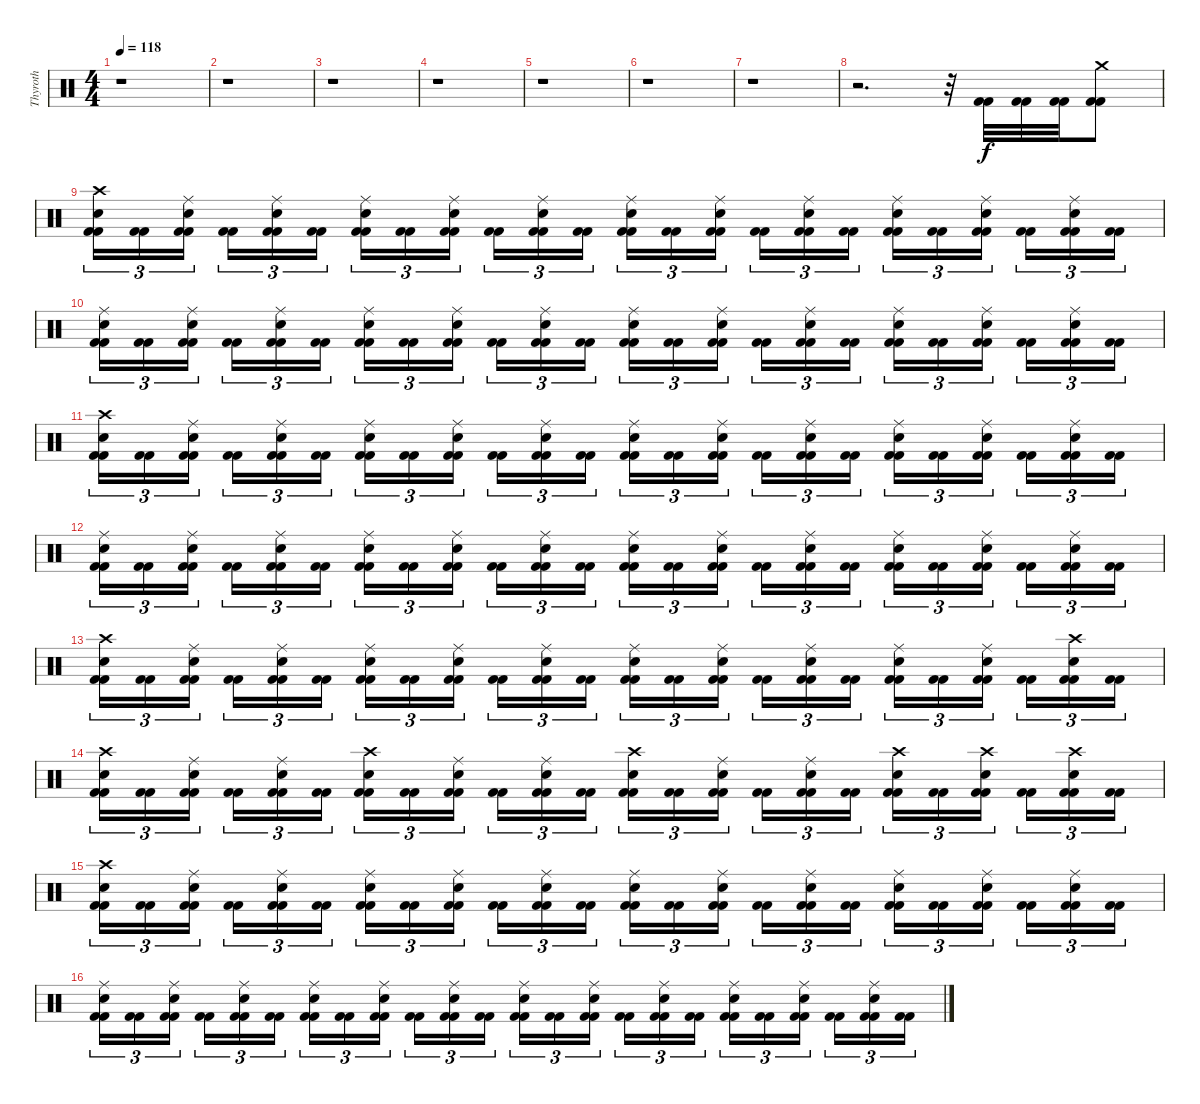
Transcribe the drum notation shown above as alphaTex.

\track ("Thyroth" "Thyroth") {instrument percussion}
\staff {score}
\articulation defaults
\ts (4 4)
\tempo 118
\clef neutral
\ks c
r.1{dy f} |
r.1 |
r.1 |
r.1 |
r.1 |
r.1 |
r.1 |
r.2{d} r.32 ("Kick (hit) 2" "Kick (hit) 2").32 ("Kick (hit) 2" "Kick (hit) 2").32 ("Kick (hit) 2" "Kick (hit) 2").32 ("Kick (hit) 2" "Kick (hit) 2" "Crash medium (hit)").8 |
("Kick (hit) 2" "Kick (hit) 2" "Snare (hit) 2" "Crash high (hit)").16{tu (3 2)} ("Kick (hit) 2" "Kick (hit) 2").16{tu (3 2)} ("Kick (hit) 2" "Kick (hit) 2" "Snare (hit) 2" "Ride (middle)").16{tu (3 2)} ("Kick (hit) 2" "Kick (hit) 2").16{tu (3 2)} ("Kick (hit) 2" "Kick (hit) 2" "Snare (hit) 2" "Ride (middle)").16{tu (3 2)} ("Kick (hit) 2" "Kick (hit) 2").16{tu (3 2)} ("Kick (hit) 2" "Kick (hit) 2" "Snare (hit) 2" "Ride (middle)").16{tu (3 2)} ("Kick (hit) 2" "Kick (hit) 2").16{tu (3 2)} ("Kick (hit) 2" "Kick (hit) 2" "Snare (hit) 2" "Ride (middle)").16{tu (3 2)} ("Kick (hit) 2" "Kick (hit) 2").16{tu (3 2)} ("Kick (hit) 2" "Kick (hit) 2" "Snare (hit) 2" "Ride (middle)").16{tu (3 2)} ("Kick (hit) 2" "Kick (hit) 2").16{tu (3 2)} ("Kick (hit) 2" "Kick (hit) 2" "Snare (hit) 2" "Ride (middle)").16{tu (3 2)} ("Kick (hit) 2" "Kick (hit) 2").16{tu (3 2)} ("Kick (hit) 2" "Kick (hit) 2" "Snare (hit) 2" "Ride (middle)").16{tu (3 2)} ("Kick (hit) 2" "Kick (hit) 2").16{tu (3 2)} ("Kick (hit) 2" "Kick (hit) 2" "Snare (hit) 2" "Ride (middle)").16{tu (3 2)} ("Kick (hit) 2" "Kick (hit) 2").16{tu (3 2)} ("Kick (hit) 2" "Kick (hit) 2" "Snare (hit) 2" "Ride (middle)").16{tu (3 2)} ("Kick (hit) 2" "Kick (hit) 2").16{tu (3 2)} ("Kick (hit) 2" "Kick (hit) 2" "Snare (hit) 2" "Ride (middle)").16{tu (3 2)} ("Kick (hit) 2" "Kick (hit) 2").16{tu (3 2)} ("Kick (hit) 2" "Kick (hit) 2" "Snare (hit) 2" "Ride (middle)").16{tu (3 2)} ("Kick (hit) 2" "Kick (hit) 2").16{tu (3 2)} |
("Kick (hit) 2" "Kick (hit) 2" "Snare (hit) 2" "Ride (middle)").16{tu (3 2)} ("Kick (hit) 2" "Kick (hit) 2").16{tu (3 2)} ("Kick (hit) 2" "Kick (hit) 2" "Snare (hit) 2" "Ride (middle)").16{tu (3 2)} ("Kick (hit) 2" "Kick (hit) 2").16{tu (3 2)} ("Kick (hit) 2" "Kick (hit) 2" "Snare (hit) 2" "Ride (middle)").16{tu (3 2)} ("Kick (hit) 2" "Kick (hit) 2").16{tu (3 2)} ("Kick (hit) 2" "Kick (hit) 2" "Snare (hit) 2" "Ride (middle)").16{tu (3 2)} ("Kick (hit) 2" "Kick (hit) 2").16{tu (3 2)} ("Kick (hit) 2" "Kick (hit) 2" "Snare (hit) 2" "Ride (middle)").16{tu (3 2)} ("Kick (hit) 2" "Kick (hit) 2").16{tu (3 2)} ("Kick (hit) 2" "Kick (hit) 2" "Snare (hit) 2" "Ride (middle)").16{tu (3 2)} ("Kick (hit) 2" "Kick (hit) 2").16{tu (3 2)} ("Kick (hit) 2" "Kick (hit) 2" "Snare (hit) 2" "Ride (middle)").16{tu (3 2)} ("Kick (hit) 2" "Kick (hit) 2").16{tu (3 2)} ("Kick (hit) 2" "Kick (hit) 2" "Snare (hit) 2" "Ride (middle)").16{tu (3 2)} ("Kick (hit) 2" "Kick (hit) 2").16{tu (3 2)} ("Kick (hit) 2" "Kick (hit) 2" "Snare (hit) 2" "Ride (middle)").16{tu (3 2)} ("Kick (hit) 2" "Kick (hit) 2").16{tu (3 2)} ("Kick (hit) 2" "Kick (hit) 2" "Snare (hit) 2" "Ride (middle)").16{tu (3 2)} ("Kick (hit) 2" "Kick (hit) 2").16{tu (3 2)} ("Kick (hit) 2" "Kick (hit) 2" "Snare (hit) 2" "Ride (middle)").16{tu (3 2)} ("Kick (hit) 2" "Kick (hit) 2").16{tu (3 2)} ("Kick (hit) 2" "Kick (hit) 2" "Snare (hit) 2" "Ride (middle)").16{tu (3 2)} ("Kick (hit) 2" "Kick (hit) 2").16{tu (3 2)} |
("Kick (hit) 2" "Kick (hit) 2" "Snare (hit) 2" "Crash high (hit)").16{tu (3 2)} ("Kick (hit) 2" "Kick (hit) 2").16{tu (3 2)} ("Kick (hit) 2" "Kick (hit) 2" "Snare (hit) 2" "Ride (middle)").16{tu (3 2)} ("Kick (hit) 2" "Kick (hit) 2").16{tu (3 2)} ("Kick (hit) 2" "Kick (hit) 2" "Snare (hit) 2" "Ride (middle)").16{tu (3 2)} ("Kick (hit) 2" "Kick (hit) 2").16{tu (3 2)} ("Kick (hit) 2" "Kick (hit) 2" "Snare (hit) 2" "Ride (middle)").16{tu (3 2)} ("Kick (hit) 2" "Kick (hit) 2").16{tu (3 2)} ("Kick (hit) 2" "Kick (hit) 2" "Snare (hit) 2" "Ride (middle)").16{tu (3 2)} ("Kick (hit) 2" "Kick (hit) 2").16{tu (3 2)} ("Kick (hit) 2" "Kick (hit) 2" "Snare (hit) 2" "Ride (middle)").16{tu (3 2)} ("Kick (hit) 2" "Kick (hit) 2").16{tu (3 2)} ("Kick (hit) 2" "Kick (hit) 2" "Snare (hit) 2" "Ride (middle)").16{tu (3 2)} ("Kick (hit) 2" "Kick (hit) 2").16{tu (3 2)} ("Kick (hit) 2" "Kick (hit) 2" "Snare (hit) 2" "Ride (middle)").16{tu (3 2)} ("Kick (hit) 2" "Kick (hit) 2").16{tu (3 2)} ("Kick (hit) 2" "Kick (hit) 2" "Snare (hit) 2" "Ride (middle)").16{tu (3 2)} ("Kick (hit) 2" "Kick (hit) 2").16{tu (3 2)} ("Kick (hit) 2" "Kick (hit) 2" "Snare (hit) 2" "Ride (middle)").16{tu (3 2)} ("Kick (hit) 2" "Kick (hit) 2").16{tu (3 2)} ("Kick (hit) 2" "Kick (hit) 2" "Snare (hit) 2" "Ride (middle)").16{tu (3 2)} ("Kick (hit) 2" "Kick (hit) 2").16{tu (3 2)} ("Kick (hit) 2" "Kick (hit) 2" "Snare (hit) 2" "Ride (middle)").16{tu (3 2)} ("Kick (hit) 2" "Kick (hit) 2").16{tu (3 2)} |
("Kick (hit) 2" "Kick (hit) 2" "Snare (hit) 2" "Ride (middle)").16{tu (3 2)} ("Kick (hit) 2" "Kick (hit) 2").16{tu (3 2)} ("Kick (hit) 2" "Kick (hit) 2" "Snare (hit) 2" "Ride (middle)").16{tu (3 2)} ("Kick (hit) 2" "Kick (hit) 2").16{tu (3 2)} ("Kick (hit) 2" "Kick (hit) 2" "Snare (hit) 2" "Ride (middle)").16{tu (3 2)} ("Kick (hit) 2" "Kick (hit) 2").16{tu (3 2)} ("Kick (hit) 2" "Kick (hit) 2" "Snare (hit) 2" "Ride (middle)").16{tu (3 2)} ("Kick (hit) 2" "Kick (hit) 2").16{tu (3 2)} ("Kick (hit) 2" "Kick (hit) 2" "Snare (hit) 2" "Ride (middle)").16{tu (3 2)} ("Kick (hit) 2" "Kick (hit) 2").16{tu (3 2)} ("Kick (hit) 2" "Kick (hit) 2" "Snare (hit) 2" "Ride (middle)").16{tu (3 2)} ("Kick (hit) 2" "Kick (hit) 2").16{tu (3 2)} ("Kick (hit) 2" "Kick (hit) 2" "Snare (hit) 2" "Ride (middle)").16{tu (3 2)} ("Kick (hit) 2" "Kick (hit) 2").16{tu (3 2)} ("Kick (hit) 2" "Kick (hit) 2" "Snare (hit) 2" "Ride (middle)").16{tu (3 2)} ("Kick (hit) 2" "Kick (hit) 2").16{tu (3 2)} ("Kick (hit) 2" "Kick (hit) 2" "Snare (hit) 2" "Ride (middle)").16{tu (3 2)} ("Kick (hit) 2" "Kick (hit) 2").16{tu (3 2)} ("Kick (hit) 2" "Kick (hit) 2" "Snare (hit) 2" "Ride (middle)").16{tu (3 2)} ("Kick (hit) 2" "Kick (hit) 2").16{tu (3 2)} ("Kick (hit) 2" "Kick (hit) 2" "Snare (hit) 2" "Ride (middle)").16{tu (3 2)} ("Kick (hit) 2" "Kick (hit) 2").16{tu (3 2)} ("Kick (hit) 2" "Kick (hit) 2" "Snare (hit) 2" "Ride (middle)").16{tu (3 2)} ("Kick (hit) 2" "Kick (hit) 2").16{tu (3 2)} |
("Kick (hit) 2" "Kick (hit) 2" "Snare (hit) 2" "Crash high (hit)").16{tu (3 2)} ("Kick (hit) 2" "Kick (hit) 2").16{tu (3 2)} ("Kick (hit) 2" "Kick (hit) 2" "Snare (hit) 2" "Ride (middle)").16{tu (3 2)} ("Kick (hit) 2" "Kick (hit) 2").16{tu (3 2)} ("Kick (hit) 2" "Kick (hit) 2" "Snare (hit) 2" "Ride (middle)").16{tu (3 2)} ("Kick (hit) 2" "Kick (hit) 2").16{tu (3 2)} ("Kick (hit) 2" "Kick (hit) 2" "Snare (hit) 2" "Ride (middle)").16{tu (3 2)} ("Kick (hit) 2" "Kick (hit) 2").16{tu (3 2)} ("Kick (hit) 2" "Kick (hit) 2" "Snare (hit) 2" "Ride (middle)").16{tu (3 2)} ("Kick (hit) 2" "Kick (hit) 2").16{tu (3 2)} ("Kick (hit) 2" "Kick (hit) 2" "Snare (hit) 2" "Ride (middle)").16{tu (3 2)} ("Kick (hit) 2" "Kick (hit) 2").16{tu (3 2)} ("Kick (hit) 2" "Kick (hit) 2" "Snare (hit) 2" "Ride (middle)").16{tu (3 2)} ("Kick (hit) 2" "Kick (hit) 2").16{tu (3 2)} ("Kick (hit) 2" "Kick (hit) 2" "Snare (hit) 2" "Ride (middle)").16{tu (3 2)} ("Kick (hit) 2" "Kick (hit) 2").16{tu (3 2)} ("Kick (hit) 2" "Kick (hit) 2" "Snare (hit) 2" "Ride (middle)").16{tu (3 2)} ("Kick (hit) 2" "Kick (hit) 2").16{tu (3 2)} ("Kick (hit) 2" "Kick (hit) 2" "Snare (hit) 2" "Ride (middle)").16{tu (3 2)} ("Kick (hit) 2" "Kick (hit) 2").16{tu (3 2)} ("Kick (hit) 2" "Kick (hit) 2" "Snare (hit) 2" "Ride (middle)").16{tu (3 2)} ("Kick (hit) 2" "Kick (hit) 2").16{tu (3 2)} ("Kick (hit) 2" "Kick (hit) 2" "Snare (hit) 2" "Crash high (hit)").16{tu (3 2)} ("Kick (hit) 2" "Kick (hit) 2").16{tu (3 2)} |
("Kick (hit) 2" "Kick (hit) 2" "Snare (hit) 2" "Crash high (hit)").16{tu (3 2)} ("Kick (hit) 2" "Kick (hit) 2").16{tu (3 2)} ("Kick (hit) 2" "Kick (hit) 2" "Snare (hit) 2" "Ride (middle)").16{tu (3 2)} ("Kick (hit) 2" "Kick (hit) 2").16{tu (3 2)} ("Kick (hit) 2" "Kick (hit) 2" "Snare (hit) 2" "Ride (middle)").16{tu (3 2)} ("Kick (hit) 2" "Kick (hit) 2").16{tu (3 2)} ("Kick (hit) 2" "Kick (hit) 2" "Snare (hit) 2" "Crash high (hit)").16{tu (3 2)} ("Kick (hit) 2" "Kick (hit) 2").16{tu (3 2)} ("Kick (hit) 2" "Kick (hit) 2" "Snare (hit) 2" "Ride (middle)").16{tu (3 2)} ("Kick (hit) 2" "Kick (hit) 2").16{tu (3 2)} ("Kick (hit) 2" "Kick (hit) 2" "Snare (hit) 2" "Ride (middle)").16{tu (3 2)} ("Kick (hit) 2" "Kick (hit) 2").16{tu (3 2)} ("Kick (hit) 2" "Kick (hit) 2" "Snare (hit) 2" "Crash high (hit)").16{tu (3 2)} ("Kick (hit) 2" "Kick (hit) 2").16{tu (3 2)} ("Kick (hit) 2" "Kick (hit) 2" "Snare (hit) 2" "Ride (middle)").16{tu (3 2)} ("Kick (hit) 2" "Kick (hit) 2").16{tu (3 2)} ("Kick (hit) 2" "Kick (hit) 2" "Snare (hit) 2" "Ride (middle)").16{tu (3 2)} ("Kick (hit) 2" "Kick (hit) 2").16{tu (3 2)} ("Kick (hit) 2" "Kick (hit) 2" "Snare (hit) 2" "Crash high (hit)").16{tu (3 2)} ("Kick (hit) 2" "Kick (hit) 2").16{tu (3 2)} ("Kick (hit) 2" "Kick (hit) 2" "Snare (hit) 2" "Crash high (hit)").16{tu (3 2)} ("Kick (hit) 2" "Kick (hit) 2").16{tu (3 2)} ("Kick (hit) 2" "Kick (hit) 2" "Snare (hit) 2" "Crash high (hit)").16{tu (3 2)} ("Kick (hit) 2" "Kick (hit) 2").16{tu (3 2)} |
("Kick (hit) 2" "Kick (hit) 2" "Snare (hit) 2" "Crash high (hit)").16{tu (3 2)} ("Kick (hit) 2" "Kick (hit) 2").16{tu (3 2)} ("Kick (hit) 2" "Kick (hit) 2" "Snare (hit) 2" "Ride (middle)").16{tu (3 2)} ("Kick (hit) 2" "Kick (hit) 2").16{tu (3 2)} ("Kick (hit) 2" "Kick (hit) 2" "Snare (hit) 2" "Ride (middle)").16{tu (3 2)} ("Kick (hit) 2" "Kick (hit) 2").16{tu (3 2)} ("Kick (hit) 2" "Kick (hit) 2" "Snare (hit) 2" "Ride (middle)").16{tu (3 2)} ("Kick (hit) 2" "Kick (hit) 2").16{tu (3 2)} ("Kick (hit) 2" "Kick (hit) 2" "Snare (hit) 2" "Ride (middle)").16{tu (3 2)} ("Kick (hit) 2" "Kick (hit) 2").16{tu (3 2)} ("Kick (hit) 2" "Kick (hit) 2" "Snare (hit) 2" "Ride (middle)").16{tu (3 2)} ("Kick (hit) 2" "Kick (hit) 2").16{tu (3 2)} ("Kick (hit) 2" "Kick (hit) 2" "Snare (hit) 2" "Ride (middle)").16{tu (3 2)} ("Kick (hit) 2" "Kick (hit) 2").16{tu (3 2)} ("Kick (hit) 2" "Kick (hit) 2" "Snare (hit) 2" "Ride (middle)").16{tu (3 2)} ("Kick (hit) 2" "Kick (hit) 2").16{tu (3 2)} ("Kick (hit) 2" "Kick (hit) 2" "Snare (hit) 2" "Ride (middle)").16{tu (3 2)} ("Kick (hit) 2" "Kick (hit) 2").16{tu (3 2)} ("Kick (hit) 2" "Kick (hit) 2" "Snare (hit) 2" "Ride (middle)").16{tu (3 2)} ("Kick (hit) 2" "Kick (hit) 2").16{tu (3 2)} ("Kick (hit) 2" "Kick (hit) 2" "Snare (hit) 2" "Ride (middle)").16{tu (3 2)} ("Kick (hit) 2" "Kick (hit) 2").16{tu (3 2)} ("Kick (hit) 2" "Kick (hit) 2" "Snare (hit) 2" "Ride (middle)").16{tu (3 2)} ("Kick (hit) 2" "Kick (hit) 2").16{tu (3 2)} |
("Kick (hit) 2" "Kick (hit) 2" "Snare (hit) 2" "Ride (middle)").16{tu (3 2)} ("Kick (hit) 2" "Kick (hit) 2").16{tu (3 2)} ("Kick (hit) 2" "Kick (hit) 2" "Snare (hit) 2" "Ride (middle)").16{tu (3 2)} ("Kick (hit) 2" "Kick (hit) 2").16{tu (3 2)} ("Kick (hit) 2" "Kick (hit) 2" "Snare (hit) 2" "Ride (middle)").16{tu (3 2)} ("Kick (hit) 2" "Kick (hit) 2").16{tu (3 2)} ("Kick (hit) 2" "Kick (hit) 2" "Snare (hit) 2" "Ride (middle)").16{tu (3 2)} ("Kick (hit) 2" "Kick (hit) 2").16{tu (3 2)} ("Kick (hit) 2" "Kick (hit) 2" "Snare (hit) 2" "Ride (middle)").16{tu (3 2)} ("Kick (hit) 2" "Kick (hit) 2").16{tu (3 2)} ("Kick (hit) 2" "Kick (hit) 2" "Snare (hit) 2" "Ride (middle)").16{tu (3 2)} ("Kick (hit) 2" "Kick (hit) 2").16{tu (3 2)} ("Kick (hit) 2" "Kick (hit) 2" "Snare (hit) 2" "Ride (middle)").16{tu (3 2)} ("Kick (hit) 2" "Kick (hit) 2").16{tu (3 2)} ("Kick (hit) 2" "Kick (hit) 2" "Snare (hit) 2" "Ride (middle)").16{tu (3 2)} ("Kick (hit) 2" "Kick (hit) 2").16{tu (3 2)} ("Kick (hit) 2" "Kick (hit) 2" "Snare (hit) 2" "Ride (middle)").16{tu (3 2)} ("Kick (hit) 2" "Kick (hit) 2").16{tu (3 2)} ("Kick (hit) 2" "Kick (hit) 2" "Snare (hit) 2" "Ride (middle)").16{tu (3 2)} ("Kick (hit) 2" "Kick (hit) 2").16{tu (3 2)} ("Kick (hit) 2" "Kick (hit) 2" "Snare (hit) 2" "Ride (middle)").16{tu (3 2)} ("Kick (hit) 2" "Kick (hit) 2").16{tu (3 2)} ("Kick (hit) 2" "Kick (hit) 2" "Snare (hit) 2" "Ride (middle)").16{tu (3 2)} ("Kick (hit) 2" "Kick (hit) 2").16{tu (3 2)}
